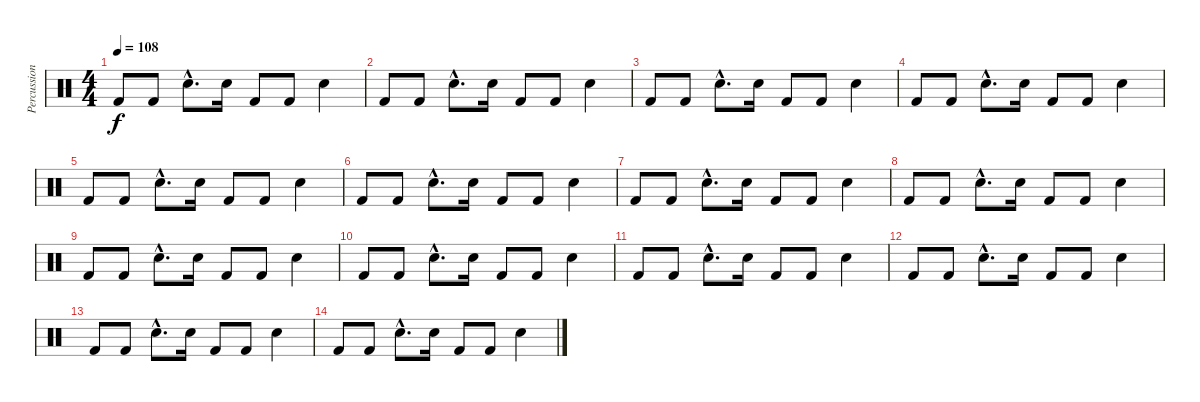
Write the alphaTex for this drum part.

\track ("Percussions" "Percussion") {instrument percussion}
\staff {score}
\articulation defaults
\ts (4 4)
\tempo 108
\clef neutral
\ks c "Kick (hit) 2".8{dy f} "Kick (hit) 2".8 "Electric Snare (hit)"{hac}.8{d} "Electric Snare (hit)".16 "Kick (hit) 2".8 "Kick (hit) 2".8 "Electric Snare (hit)".4
|
"Kick (hit) 2".8 "Kick (hit) 2".8 "Electric Snare (hit)"{hac}.8{d} "Electric Snare (hit)".16 "Kick (hit) 2".8 "Kick (hit) 2".8 "Electric Snare (hit)".4 |
"Kick (hit) 2".8 "Kick (hit) 2".8 "Electric Snare (hit)"{hac}.8{d} "Electric Snare (hit)".16 "Kick (hit) 2".8 "Kick (hit) 2".8 "Electric Snare (hit)".4 |
"Kick (hit) 2".8 "Kick (hit) 2".8 "Electric Snare (hit)"{hac}.8{d} "Electric Snare (hit)".16 "Kick (hit) 2".8 "Kick (hit) 2".8 "Electric Snare (hit)".4 |
"Kick (hit) 2".8 "Kick (hit) 2".8 "Electric Snare (hit)"{hac}.8{d} "Electric Snare (hit)".16 "Kick (hit) 2".8 "Kick (hit) 2".8 "Electric Snare (hit)".4 |
"Kick (hit) 2".8 "Kick (hit) 2".8 "Electric Snare (hit)"{hac}.8{d} "Electric Snare (hit)".16 "Kick (hit) 2".8 "Kick (hit) 2".8 "Electric Snare (hit)".4 |
"Kick (hit) 2".8 "Kick (hit) 2".8 "Electric Snare (hit)"{hac}.8{d} "Electric Snare (hit)".16 "Kick (hit) 2".8 "Kick (hit) 2".8 "Electric Snare (hit)".4 |
"Kick (hit) 2".8 "Kick (hit) 2".8 "Electric Snare (hit)"{hac}.8{d} "Electric Snare (hit)".16 "Kick (hit) 2".8 "Kick (hit) 2".8 "Electric Snare (hit)".4 |
"Kick (hit) 2".8 "Kick (hit) 2".8 "Electric Snare (hit)"{hac}.8{d} "Electric Snare (hit)".16 "Kick (hit) 2".8 "Kick (hit) 2".8 "Electric Snare (hit)".4 |
"Kick (hit) 2".8 "Kick (hit) 2".8 "Electric Snare (hit)"{hac}.8{d} "Electric Snare (hit)".16 "Kick (hit) 2".8 "Kick (hit) 2".8 "Electric Snare (hit)".4 |
"Kick (hit) 2".8 "Kick (hit) 2".8 "Electric Snare (hit)"{hac}.8{d} "Electric Snare (hit)".16 "Kick (hit) 2".8 "Kick (hit) 2".8 "Electric Snare (hit)".4 |
"Kick (hit) 2".8 "Kick (hit) 2".8 "Electric Snare (hit)"{hac}.8{d} "Electric Snare (hit)".16 "Kick (hit) 2".8 "Kick (hit) 2".8 "Electric Snare (hit)".4 |
"Kick (hit) 2".8 "Kick (hit) 2".8 "Electric Snare (hit)"{hac}.8{d} "Electric Snare (hit)".16 "Kick (hit) 2".8 "Kick (hit) 2".8 "Electric Snare (hit)".4 |
"Kick (hit) 2".8 "Kick (hit) 2".8 "Electric Snare (hit)"{hac}.8{d} "Electric Snare (hit)".16 "Kick (hit) 2".8 "Kick (hit) 2".8 "Electric Snare (hit)".4
